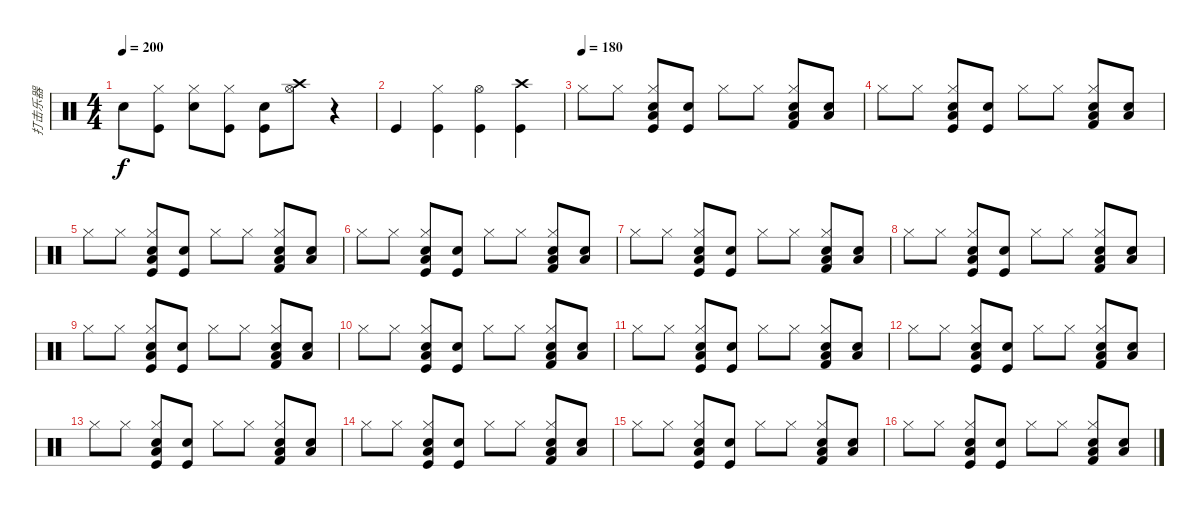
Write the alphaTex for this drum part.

\track ("打击乐器" "打击乐器") {instrument percussion}
\staff {score}
\articulation defaults
\ts (4 4)
\tempo 200
\clef neutral
\ks c "Snare (hit) 2".8{dy f}
("Hi-Hat (closed)" "Kick (hit)").8 ("Snare (hit) 2" "Hi-Hat (closed)").8 ("Hi-Hat (closed)" "Kick (hit)").8 ("Snare (hit) 2" "Kick (hit)").8 ("Hi-Hat (open)" "Crash high (hit)").8 r.4 |
"Kick (hit)".4 ("Hi-Hat (closed)" "Kick (hit)").4 ("Hi-Hat (open)" "Kick (hit)").4 ("Crash high (hit)" "Kick (hit)").4 |
\tempo (180)
"Hi-Hat (closed)".8 "Hi-Hat (closed)".8 ("Snare (hit) 2" "Low Tom (hit)" "Hi-Hat (closed)" "Kick (hit)").8 ("Snare (hit) 2" "Kick (hit)").8 "Hi-Hat (closed)".8 "Hi-Hat (closed)".8 ("Snare (hit) 2" "Low Tom (hit)" "Hi-Hat (closed)" "Kick (hit) 2").8 ("Snare (hit) 2" "Low Tom (hit)").8 |
"Hi-Hat (closed)".8 "Hi-Hat (closed)".8 ("Snare (hit) 2" "Low Tom (hit)" "Hi-Hat (closed)" "Kick (hit)").8 ("Snare (hit) 2" "Kick (hit)").8 "Hi-Hat (closed)".8 "Hi-Hat (closed)".8 ("Snare (hit) 2" "Low Tom (hit)" "Hi-Hat (closed)" "Kick (hit) 2").8 ("Snare (hit) 2" "Low Tom (hit)").8 |
"Hi-Hat (closed)".8 "Hi-Hat (closed)".8 ("Snare (hit) 2" "Low Tom (hit)" "Hi-Hat (closed)" "Kick (hit)").8 ("Snare (hit) 2" "Kick (hit)").8 "Hi-Hat (closed)".8 "Hi-Hat (closed)".8 ("Snare (hit) 2" "Low Tom (hit)" "Hi-Hat (closed)" "Kick (hit) 2").8 ("Snare (hit) 2" "Low Tom (hit)").8 |
"Hi-Hat (closed)".8 "Hi-Hat (closed)".8 ("Snare (hit) 2" "Low Tom (hit)" "Hi-Hat (closed)" "Kick (hit)").8 ("Snare (hit) 2" "Kick (hit)").8 "Hi-Hat (closed)".8 "Hi-Hat (closed)".8 ("Snare (hit) 2" "Low Tom (hit)" "Hi-Hat (closed)" "Kick (hit) 2").8 ("Snare (hit) 2" "Low Tom (hit)").8 |
"Hi-Hat (closed)".8 "Hi-Hat (closed)".8 ("Snare (hit) 2" "Low Tom (hit)" "Hi-Hat (closed)" "Kick (hit)").8 ("Snare (hit) 2" "Kick (hit)").8 "Hi-Hat (closed)".8 "Hi-Hat (closed)".8 ("Snare (hit) 2" "Low Tom (hit)" "Hi-Hat (closed)" "Kick (hit) 2").8 ("Snare (hit) 2" "Low Tom (hit)").8 |
"Hi-Hat (closed)".8 "Hi-Hat (closed)".8 ("Snare (hit) 2" "Low Tom (hit)" "Hi-Hat (closed)" "Kick (hit)").8 ("Snare (hit) 2" "Kick (hit)").8 "Hi-Hat (closed)".8 "Hi-Hat (closed)".8 ("Snare (hit) 2" "Low Tom (hit)" "Hi-Hat (closed)" "Kick (hit) 2").8 ("Snare (hit) 2" "Low Tom (hit)").8 |
"Hi-Hat (closed)".8 "Hi-Hat (closed)".8 ("Snare (hit) 2" "Low Tom (hit)" "Hi-Hat (closed)" "Kick (hit)").8 ("Snare (hit) 2" "Kick (hit)").8 "Hi-Hat (closed)".8 "Hi-Hat (closed)".8 ("Snare (hit) 2" "Low Tom (hit)" "Hi-Hat (closed)" "Kick (hit) 2").8 ("Snare (hit) 2" "Low Tom (hit)").8 |
"Hi-Hat (closed)".8 "Hi-Hat (closed)".8 ("Snare (hit) 2" "Low Tom (hit)" "Hi-Hat (closed)" "Kick (hit)").8 ("Snare (hit) 2" "Kick (hit)").8 "Hi-Hat (closed)".8 "Hi-Hat (closed)".8 ("Snare (hit) 2" "Low Tom (hit)" "Hi-Hat (closed)" "Kick (hit) 2").8 ("Snare (hit) 2" "Low Tom (hit)").8 |
"Hi-Hat (closed)".8 "Hi-Hat (closed)".8 ("Snare (hit) 2" "Low Tom (hit)" "Hi-Hat (closed)" "Kick (hit)").8 ("Snare (hit) 2" "Kick (hit)").8 "Hi-Hat (closed)".8 "Hi-Hat (closed)".8 ("Snare (hit) 2" "Low Tom (hit)" "Hi-Hat (closed)" "Kick (hit) 2").8 ("Snare (hit) 2" "Low Tom (hit)").8 |
"Hi-Hat (closed)".8 "Hi-Hat (closed)".8 ("Snare (hit) 2" "Low Tom (hit)" "Hi-Hat (closed)" "Kick (hit)").8 ("Snare (hit) 2" "Kick (hit)").8 "Hi-Hat (closed)".8 "Hi-Hat (closed)".8 ("Snare (hit) 2" "Low Tom (hit)" "Hi-Hat (closed)" "Kick (hit) 2").8 ("Snare (hit) 2" "Low Tom (hit)").8 |
"Hi-Hat (closed)".8 "Hi-Hat (closed)".8 ("Snare (hit) 2" "Low Tom (hit)" "Hi-Hat (closed)" "Kick (hit)").8 ("Snare (hit) 2" "Kick (hit)").8 "Hi-Hat (closed)".8 "Hi-Hat (closed)".8 ("Snare (hit) 2" "Low Tom (hit)" "Hi-Hat (closed)" "Kick (hit) 2").8 ("Snare (hit) 2" "Low Tom (hit)").8 |
"Hi-Hat (closed)".8 "Hi-Hat (closed)".8 ("Snare (hit) 2" "Low Tom (hit)" "Hi-Hat (closed)" "Kick (hit)").8 ("Snare (hit) 2" "Kick (hit)").8 "Hi-Hat (closed)".8 "Hi-Hat (closed)".8 ("Snare (hit) 2" "Low Tom (hit)" "Hi-Hat (closed)" "Kick (hit) 2").8 ("Snare (hit) 2" "Low Tom (hit)").8 |
"Hi-Hat (closed)".8 "Hi-Hat (closed)".8 ("Snare (hit) 2" "Low Tom (hit)" "Hi-Hat (closed)" "Kick (hit)").8 ("Snare (hit) 2" "Kick (hit)").8 "Hi-Hat (closed)".8 "Hi-Hat (closed)".8 ("Snare (hit) 2" "Low Tom (hit)" "Hi-Hat (closed)" "Kick (hit) 2").8 ("Snare (hit) 2" "Low Tom (hit)").8 |
"Hi-Hat (closed)".8 "Hi-Hat (closed)".8 ("Snare (hit) 2" "Low Tom (hit)" "Hi-Hat (closed)" "Kick (hit)").8 ("Snare (hit) 2" "Kick (hit)").8 "Hi-Hat (closed)".8 "Hi-Hat (closed)".8 ("Snare (hit) 2" "Low Tom (hit)" "Hi-Hat (closed)" "Kick (hit) 2").8 ("Snare (hit) 2" "Low Tom (hit)").8
